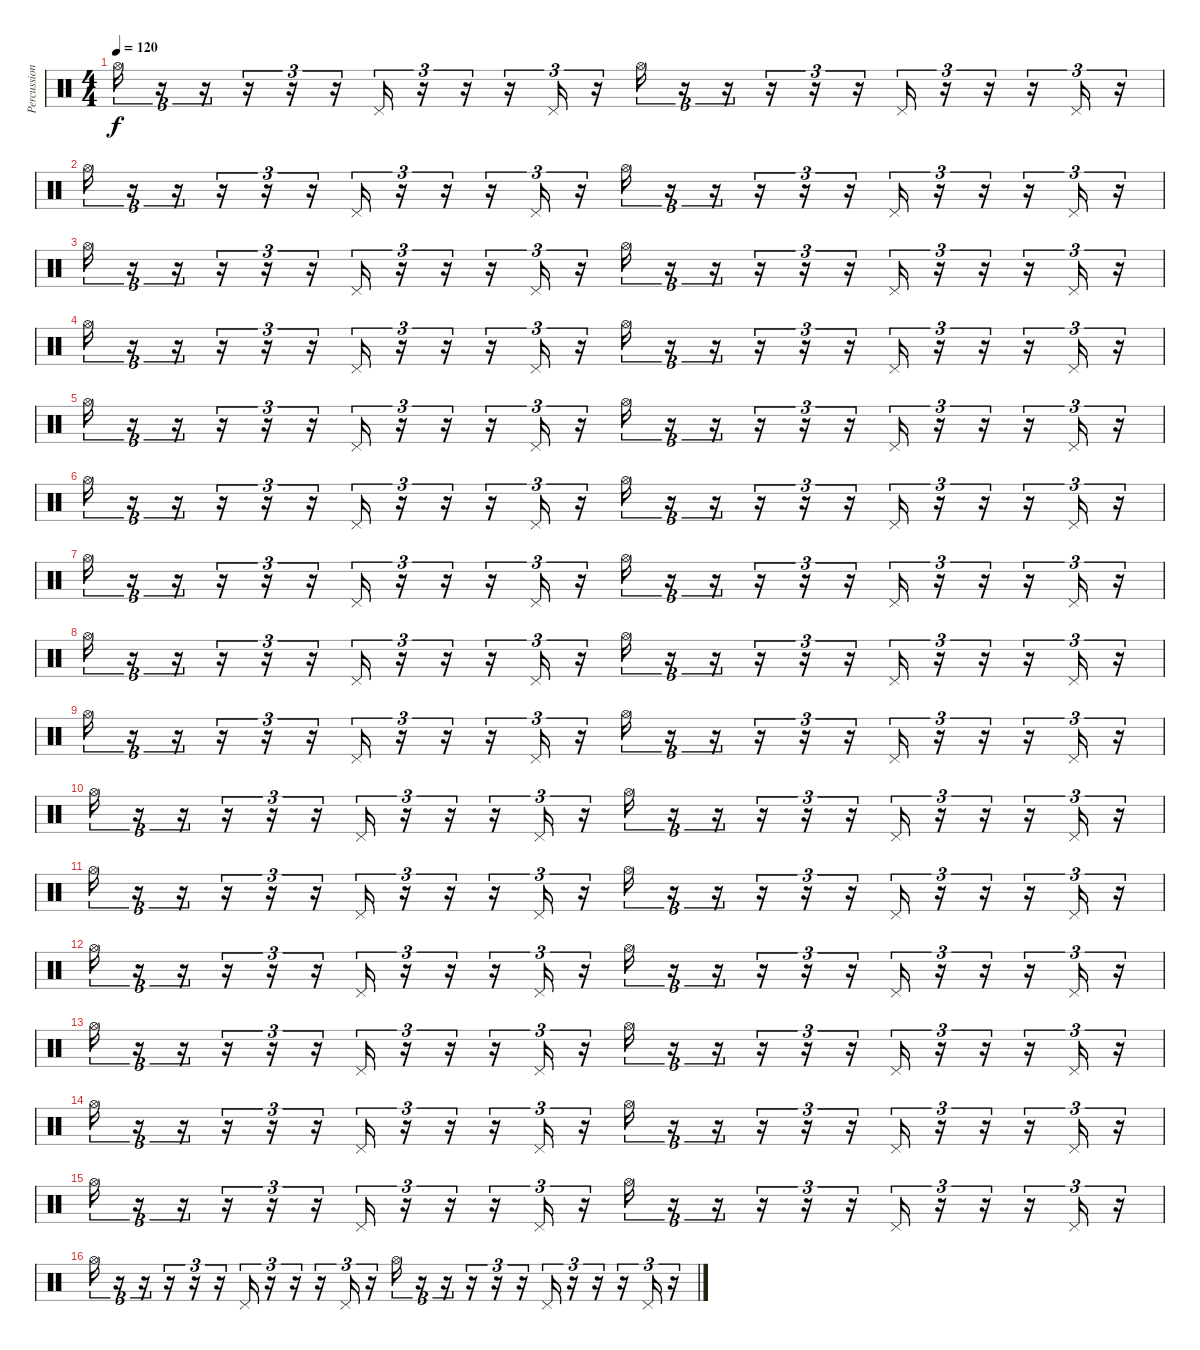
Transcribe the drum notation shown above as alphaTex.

\track ("Percussion" "Percussion") {instrument percussion}
\staff {score}
\articulation defaults
\ts (4 4)
\tempo 120
\clef neutral
\ks c "Hi-Hat (open)".16{tu (3 2) dy f}
r.16{tu (3 2)} r.16{tu (3 2)} r.16{tu (3 2)} r.16{tu (3 2)} r.16{tu (3 2)} "Pedal Hi-Hat (hit)".16{tu (3 2)} r.16{tu (3 2)} r.16{tu (3 2)} r.16{tu (3 2)} "Pedal Hi-Hat (hit)".16{tu (3 2)} r.16{tu (3 2)} "Hi-Hat (open)".16{tu (3 2)} r.16{tu (3 2)} r.16{tu (3 2)} r.16{tu (3 2)} r.16{tu (3 2)} r.16{tu (3 2)} "Pedal Hi-Hat (hit)".16{tu (3 2)} r.16{tu (3 2)} r.16{tu (3 2)} r.16{tu (3 2)} "Pedal Hi-Hat (hit)".16{tu (3 2)} r.16{tu (3 2)} |
"Hi-Hat (open)".16{tu (3 2)} r.16{tu (3 2)} r.16{tu (3 2)} r.16{tu (3 2)} r.16{tu (3 2)} r.16{tu (3 2)} "Pedal Hi-Hat (hit)".16{tu (3 2)} r.16{tu (3 2)} r.16{tu (3 2)} r.16{tu (3 2)} "Pedal Hi-Hat (hit)".16{tu (3 2)} r.16{tu (3 2)} "Hi-Hat (open)".16{tu (3 2)} r.16{tu (3 2)} r.16{tu (3 2)} r.16{tu (3 2)} r.16{tu (3 2)} r.16{tu (3 2)} "Pedal Hi-Hat (hit)".16{tu (3 2)} r.16{tu (3 2)} r.16{tu (3 2)} r.16{tu (3 2)} "Pedal Hi-Hat (hit)".16{tu (3 2)} r.16{tu (3 2)} |
"Hi-Hat (open)".16{tu (3 2)} r.16{tu (3 2)} r.16{tu (3 2)} r.16{tu (3 2)} r.16{tu (3 2)} r.16{tu (3 2)} "Pedal Hi-Hat (hit)".16{tu (3 2)} r.16{tu (3 2)} r.16{tu (3 2)} r.16{tu (3 2)} "Pedal Hi-Hat (hit)".16{tu (3 2)} r.16{tu (3 2)} "Hi-Hat (open)".16{tu (3 2)} r.16{tu (3 2)} r.16{tu (3 2)} r.16{tu (3 2)} r.16{tu (3 2)} r.16{tu (3 2)} "Pedal Hi-Hat (hit)".16{tu (3 2)} r.16{tu (3 2)} r.16{tu (3 2)} r.16{tu (3 2)} "Pedal Hi-Hat (hit)".16{tu (3 2)} r.16{tu (3 2)} |
"Hi-Hat (open)".16{tu (3 2)} r.16{tu (3 2)} r.16{tu (3 2)} r.16{tu (3 2)} r.16{tu (3 2)} r.16{tu (3 2)} "Pedal Hi-Hat (hit)".16{tu (3 2)} r.16{tu (3 2)} r.16{tu (3 2)} r.16{tu (3 2)} "Pedal Hi-Hat (hit)".16{tu (3 2)} r.16{tu (3 2)} "Hi-Hat (open)".16{tu (3 2)} r.16{tu (3 2)} r.16{tu (3 2)} r.16{tu (3 2)} r.16{tu (3 2)} r.16{tu (3 2)} "Pedal Hi-Hat (hit)".16{tu (3 2)} r.16{tu (3 2)} r.16{tu (3 2)} r.16{tu (3 2)} "Pedal Hi-Hat (hit)".16{tu (3 2)} r.16{tu (3 2)} |
"Hi-Hat (open)".16{tu (3 2)} r.16{tu (3 2)} r.16{tu (3 2)} r.16{tu (3 2)} r.16{tu (3 2)} r.16{tu (3 2)} "Pedal Hi-Hat (hit)".16{tu (3 2)} r.16{tu (3 2)} r.16{tu (3 2)} r.16{tu (3 2)} "Pedal Hi-Hat (hit)".16{tu (3 2)} r.16{tu (3 2)} "Hi-Hat (open)".16{tu (3 2)} r.16{tu (3 2)} r.16{tu (3 2)} r.16{tu (3 2)} r.16{tu (3 2)} r.16{tu (3 2)} "Pedal Hi-Hat (hit)".16{tu (3 2)} r.16{tu (3 2)} r.16{tu (3 2)} r.16{tu (3 2)} "Pedal Hi-Hat (hit)".16{tu (3 2)} r.16{tu (3 2)} |
"Hi-Hat (open)".16{tu (3 2)} r.16{tu (3 2)} r.16{tu (3 2)} r.16{tu (3 2)} r.16{tu (3 2)} r.16{tu (3 2)} "Pedal Hi-Hat (hit)".16{tu (3 2)} r.16{tu (3 2)} r.16{tu (3 2)} r.16{tu (3 2)} "Pedal Hi-Hat (hit)".16{tu (3 2)} r.16{tu (3 2)} "Hi-Hat (open)".16{tu (3 2)} r.16{tu (3 2)} r.16{tu (3 2)} r.16{tu (3 2)} r.16{tu (3 2)} r.16{tu (3 2)} "Pedal Hi-Hat (hit)".16{tu (3 2)} r.16{tu (3 2)} r.16{tu (3 2)} r.16{tu (3 2)} "Pedal Hi-Hat (hit)".16{tu (3 2)} r.16{tu (3 2)} |
"Hi-Hat (open)".16{tu (3 2)} r.16{tu (3 2)} r.16{tu (3 2)} r.16{tu (3 2)} r.16{tu (3 2)} r.16{tu (3 2)} "Pedal Hi-Hat (hit)".16{tu (3 2)} r.16{tu (3 2)} r.16{tu (3 2)} r.16{tu (3 2)} "Pedal Hi-Hat (hit)".16{tu (3 2)} r.16{tu (3 2)} "Hi-Hat (open)".16{tu (3 2)} r.16{tu (3 2)} r.16{tu (3 2)} r.16{tu (3 2)} r.16{tu (3 2)} r.16{tu (3 2)} "Pedal Hi-Hat (hit)".16{tu (3 2)} r.16{tu (3 2)} r.16{tu (3 2)} r.16{tu (3 2)} "Pedal Hi-Hat (hit)".16{tu (3 2)} r.16{tu (3 2)} |
"Hi-Hat (open)".16{tu (3 2)} r.16{tu (3 2)} r.16{tu (3 2)} r.16{tu (3 2)} r.16{tu (3 2)} r.16{tu (3 2)} "Pedal Hi-Hat (hit)".16{tu (3 2)} r.16{tu (3 2)} r.16{tu (3 2)} r.16{tu (3 2)} "Pedal Hi-Hat (hit)".16{tu (3 2)} r.16{tu (3 2)} "Hi-Hat (open)".16{tu (3 2)} r.16{tu (3 2)} r.16{tu (3 2)} r.16{tu (3 2)} r.16{tu (3 2)} r.16{tu (3 2)} "Pedal Hi-Hat (hit)".16{tu (3 2)} r.16{tu (3 2)} r.16{tu (3 2)} r.16{tu (3 2)} "Pedal Hi-Hat (hit)".16{tu (3 2)} r.16{tu (3 2)} |
"Hi-Hat (open)".16{tu (3 2)} r.16{tu (3 2)} r.16{tu (3 2)} r.16{tu (3 2)} r.16{tu (3 2)} r.16{tu (3 2)} "Pedal Hi-Hat (hit)".16{tu (3 2)} r.16{tu (3 2)} r.16{tu (3 2)} r.16{tu (3 2)} "Pedal Hi-Hat (hit)".16{tu (3 2)} r.16{tu (3 2)} "Hi-Hat (open)".16{tu (3 2)} r.16{tu (3 2)} r.16{tu (3 2)} r.16{tu (3 2)} r.16{tu (3 2)} r.16{tu (3 2)} "Pedal Hi-Hat (hit)".16{tu (3 2)} r.16{tu (3 2)} r.16{tu (3 2)} r.16{tu (3 2)} "Pedal Hi-Hat (hit)".16{tu (3 2)} r.16{tu (3 2)} |
"Hi-Hat (open)".16{tu (3 2)} r.16{tu (3 2)} r.16{tu (3 2)} r.16{tu (3 2)} r.16{tu (3 2)} r.16{tu (3 2)} "Pedal Hi-Hat (hit)".16{tu (3 2)} r.16{tu (3 2)} r.16{tu (3 2)} r.16{tu (3 2)} "Pedal Hi-Hat (hit)".16{tu (3 2)} r.16{tu (3 2)} "Hi-Hat (open)".16{tu (3 2)} r.16{tu (3 2)} r.16{tu (3 2)} r.16{tu (3 2)} r.16{tu (3 2)} r.16{tu (3 2)} "Pedal Hi-Hat (hit)".16{tu (3 2)} r.16{tu (3 2)} r.16{tu (3 2)} r.16{tu (3 2)} "Pedal Hi-Hat (hit)".16{tu (3 2)} r.16{tu (3 2)} |
"Hi-Hat (open)".16{tu (3 2)} r.16{tu (3 2)} r.16{tu (3 2)} r.16{tu (3 2)} r.16{tu (3 2)} r.16{tu (3 2)} "Pedal Hi-Hat (hit)".16{tu (3 2)} r.16{tu (3 2)} r.16{tu (3 2)} r.16{tu (3 2)} "Pedal Hi-Hat (hit)".16{tu (3 2)} r.16{tu (3 2)} "Hi-Hat (open)".16{tu (3 2)} r.16{tu (3 2)} r.16{tu (3 2)} r.16{tu (3 2)} r.16{tu (3 2)} r.16{tu (3 2)} "Pedal Hi-Hat (hit)".16{tu (3 2)} r.16{tu (3 2)} r.16{tu (3 2)} r.16{tu (3 2)} "Pedal Hi-Hat (hit)".16{tu (3 2)} r.16{tu (3 2)} |
"Hi-Hat (open)".16{tu (3 2)} r.16{tu (3 2)} r.16{tu (3 2)} r.16{tu (3 2)} r.16{tu (3 2)} r.16{tu (3 2)} "Pedal Hi-Hat (hit)".16{tu (3 2)} r.16{tu (3 2)} r.16{tu (3 2)} r.16{tu (3 2)} "Pedal Hi-Hat (hit)".16{tu (3 2)} r.16{tu (3 2)} "Hi-Hat (open)".16{tu (3 2)} r.16{tu (3 2)} r.16{tu (3 2)} r.16{tu (3 2)} r.16{tu (3 2)} r.16{tu (3 2)} "Pedal Hi-Hat (hit)".16{tu (3 2)} r.16{tu (3 2)} r.16{tu (3 2)} r.16{tu (3 2)} "Pedal Hi-Hat (hit)".16{tu (3 2)} r.16{tu (3 2)} |
"Hi-Hat (open)".16{tu (3 2)} r.16{tu (3 2)} r.16{tu (3 2)} r.16{tu (3 2)} r.16{tu (3 2)} r.16{tu (3 2)} "Pedal Hi-Hat (hit)".16{tu (3 2)} r.16{tu (3 2)} r.16{tu (3 2)} r.16{tu (3 2)} "Pedal Hi-Hat (hit)".16{tu (3 2)} r.16{tu (3 2)} "Hi-Hat (open)".16{tu (3 2)} r.16{tu (3 2)} r.16{tu (3 2)} r.16{tu (3 2)} r.16{tu (3 2)} r.16{tu (3 2)} "Pedal Hi-Hat (hit)".16{tu (3 2)} r.16{tu (3 2)} r.16{tu (3 2)} r.16{tu (3 2)} "Pedal Hi-Hat (hit)".16{tu (3 2)} r.16{tu (3 2)} |
"Hi-Hat (open)".16{tu (3 2)} r.16{tu (3 2)} r.16{tu (3 2)} r.16{tu (3 2)} r.16{tu (3 2)} r.16{tu (3 2)} "Pedal Hi-Hat (hit)".16{tu (3 2)} r.16{tu (3 2)} r.16{tu (3 2)} r.16{tu (3 2)} "Pedal Hi-Hat (hit)".16{tu (3 2)} r.16{tu (3 2)} "Hi-Hat (open)".16{tu (3 2)} r.16{tu (3 2)} r.16{tu (3 2)} r.16{tu (3 2)} r.16{tu (3 2)} r.16{tu (3 2)} "Pedal Hi-Hat (hit)".16{tu (3 2)} r.16{tu (3 2)} r.16{tu (3 2)} r.16{tu (3 2)} "Pedal Hi-Hat (hit)".16{tu (3 2)} r.16{tu (3 2)} |
"Hi-Hat (open)".16{tu (3 2)} r.16{tu (3 2)} r.16{tu (3 2)} r.16{tu (3 2)} r.16{tu (3 2)} r.16{tu (3 2)} "Pedal Hi-Hat (hit)".16{tu (3 2)} r.16{tu (3 2)} r.16{tu (3 2)} r.16{tu (3 2)} "Pedal Hi-Hat (hit)".16{tu (3 2)} r.16{tu (3 2)} "Hi-Hat (open)".16{tu (3 2)} r.16{tu (3 2)} r.16{tu (3 2)} r.16{tu (3 2)} r.16{tu (3 2)} r.16{tu (3 2)} "Pedal Hi-Hat (hit)".16{tu (3 2)} r.16{tu (3 2)} r.16{tu (3 2)} r.16{tu (3 2)} "Pedal Hi-Hat (hit)".16{tu (3 2)} r.16{tu (3 2)} |
"Hi-Hat (open)".16{tu (3 2)} r.16{tu (3 2)} r.16{tu (3 2)} r.16{tu (3 2)} r.16{tu (3 2)} r.16{tu (3 2)} "Pedal Hi-Hat (hit)".16{tu (3 2)} r.16{tu (3 2)} r.16{tu (3 2)} r.16{tu (3 2)} "Pedal Hi-Hat (hit)".16{tu (3 2)} r.16{tu (3 2)} "Hi-Hat (open)".16{tu (3 2)} r.16{tu (3 2)} r.16{tu (3 2)} r.16{tu (3 2)} r.16{tu (3 2)} r.16{tu (3 2)} "Pedal Hi-Hat (hit)".16{tu (3 2)} r.16{tu (3 2)} r.16{tu (3 2)} r.16{tu (3 2)} "Pedal Hi-Hat (hit)".16{tu (3 2)} r.16{tu (3 2)}
